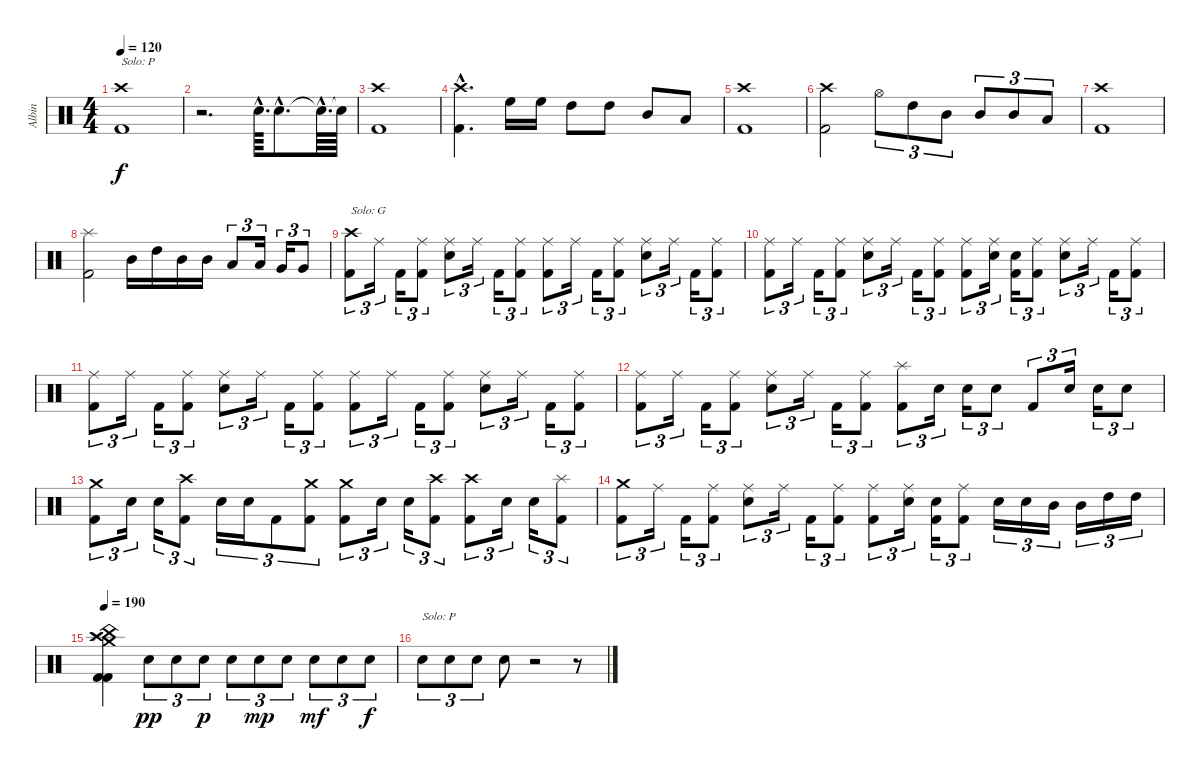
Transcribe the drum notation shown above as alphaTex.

\track ("Albin" "Albin") {instrument percussion}
\staff {score}
\articulation defaults
\ts (4 4)
\tempo 120
\clef neutral
\ks c
("Kick (hit) 2" "Crash high (hit)").1{txt "Solo: P" dy f} |
r.2{d} "Electric Snare (hit)"{hac}.64{d} "Electric Snare (hit)"{hac}.8{d} "Snare (hit)"{hac t}.64{d} "Snare (hit)"{t}.64 |
("Kick (hit) 2" "Crash high (hit)").1 |
("Kick (hit) 2"{hac} "Crash high (hit)"{hac}).4{d} "High Floor Tom (hit)".16 "High Floor Tom (hit)".16 "High Tom (hit)".8 "High Tom (hit)".8 "Mid Tom (hit)".8 "Low Tom (hit)".8 |
("Kick (hit) 2" "Crash high (hit)").1 |
("Kick (hit) 2" "Crash high (hit)").2 "Hi-Hat (open)".8{tu (3 2)} "High Tom (hit)".8{tu (3 2)} "Mid Tom (hit)".8{tu (3 2)} "Mid Tom (hit)".8{tu (3 2)} "Mid Tom (hit)".8{tu (3 2)} "Low Tom (hit)".8{tu (3 2)} |
("Kick (hit) 2" "Crash high (hit)").1 |
("Kick (hit) 2" "Splash (hit)").2 "Mid Tom (hit)".16 "High Tom (hit)".16 "Mid Tom (hit)".16 "Mid Tom (hit)".16 "Low Tom (hit)".8{tu (3 2)} "Low Tom (hit)".16{tu (3 2)} "Very Low Tom (hit)".16{tu (3 2)} "Very Low Tom (hit)".8{tu (3 2)} |
("Kick (hit) 2" "Crash high (hit)").8{tu (3 2) txt "Solo: G"} "Ride (middle)".16{tu (3 2)} "Kick (hit) 2".16{tu (3 2)} ("Kick (hit) 2" "Ride (middle)").8{tu (3 2)} ("Electric Snare (hit)" "Ride (middle)").8{tu (3 2)} "Ride (middle)".16{tu (3 2)} "Kick (hit) 2".16{tu (3 2)} ("Kick (hit) 2" "Ride (middle)").8{tu (3 2)} ("Kick (hit) 2" "Ride (middle)").8{tu (3 2)} "Ride (middle)".16{tu (3 2)} "Kick (hit) 2".16{tu (3 2)} ("Kick (hit) 2" "Ride (middle)").8{tu (3 2)} ("Electric Snare (hit)" "Ride (middle)").8{tu (3 2)} "Ride (middle)".16{tu (3 2)} "Kick (hit) 2".16{tu (3 2)} ("Kick (hit) 2" "Ride (middle)").8{tu (3 2)} |
("Kick (hit) 2" "Ride (middle)").8{tu (3 2)} "Ride (middle)".16{tu (3 2)} "Kick (hit) 2".16{tu (3 2)} ("Kick (hit) 2" "Ride (middle)").8{tu (3 2)} ("Electric Snare (hit)" "Ride (middle)").8{tu (3 2)} "Ride (middle)".16{tu (3 2)} "Kick (hit) 2".16{tu (3 2)} ("Kick (hit) 2" "Ride (middle)").8{tu (3 2)} ("Kick (hit) 2" "Ride (middle)").8{tu (3 2)} ("Electric Snare (hit)" "Ride (middle)").16{tu (3 2)} ("Kick (hit) 2" "Electric Snare (hit)").16{tu (3 2)} ("Kick (hit) 2" "Ride (middle)").8{tu (3 2)} ("Electric Snare (hit)" "Ride (middle)").8{tu (3 2)} "Ride (middle)".16{tu (3 2)} "Kick (hit) 2".16{tu (3 2)} ("Kick (hit) 2" "Ride (middle)").8{tu (3 2)} |
("Kick (hit) 2" "Ride (middle)").8{tu (3 2)} "Ride (middle)".16{tu (3 2)} "Kick (hit) 2".16{tu (3 2)} ("Kick (hit) 2" "Ride (middle)").8{tu (3 2)} ("Electric Snare (hit)" "Ride (middle)").8{tu (3 2)} "Ride (middle)".16{tu (3 2)} "Kick (hit) 2".16{tu (3 2)} ("Kick (hit) 2" "Ride (middle)").8{tu (3 2)} ("Kick (hit) 2" "Ride (middle)").8{tu (3 2)} "Ride (middle)".16{tu (3 2)} "Kick (hit) 2".16{tu (3 2)} ("Kick (hit) 2" "Ride (middle)").8{tu (3 2)} ("Electric Snare (hit)" "Ride (middle)").8{tu (3 2)} "Ride (middle)".16{tu (3 2)} "Kick (hit) 2".16{tu (3 2)} ("Kick (hit) 2" "Ride (middle)").8{tu (3 2)} |
("Kick (hit) 2" "Ride (middle)").8{tu (3 2)} "Ride (middle)".16{tu (3 2)} "Kick (hit) 2".16{tu (3 2)} ("Kick (hit) 2" "Ride (middle)").8{tu (3 2)} ("Electric Snare (hit)" "Ride (middle)").8{tu (3 2)} "Ride (middle)".16{tu (3 2)} "Kick (hit) 2".16{tu (3 2)} ("Kick (hit) 2" "Ride (middle)").8{tu (3 2)} ("Kick (hit) 2" "Splash (hit)").8{tu (3 2)} "Electric Snare (hit)".16{tu (3 2)} "Electric Snare (hit)".16{tu (3 2)} "Electric Snare (hit)".8{tu (3 2)} "Kick (hit) 2".8{tu (3 2)} "Electric Snare (hit)".16{tu (3 2)} "Electric Snare (hit)".16{tu (3 2)} "Electric Snare (hit)".8{tu (3 2)} |
("Kick (hit) 2" "Crash medium (hit)").8{tu (3 2)} "Electric Snare (hit)".16{tu (3 2)} "Electric Snare (hit)".16{tu (3 2)} ("Kick (hit) 2" "Crash high (hit)").8{tu (3 2)} "Electric Snare (hit)".16{tu (3 2)} "Electric Snare (hit)".16{tu (3 2)} "Kick (hit) 2".8{tu (3 2)} ("Kick (hit) 2" "Crash medium (hit)").8{tu (3 2)} ("Kick (hit) 2" "Crash medium (hit)").8{tu (3 2)} "Electric Snare (hit)".16{tu (3 2)} "Electric Snare (hit)".16{tu (3 2)} ("Kick (hit) 2" "Crash high (hit)").8{tu (3 2)} ("Kick (hit) 2" "Crash high (hit)").8{tu (3 2)} "Electric Snare (hit)".16{tu (3 2)} "Electric Snare (hit)".16{tu (3 2)} ("Kick (hit) 2" "Splash (hit)").8{tu (3 2)} |
("Kick (hit) 2" "Crash medium (hit)").8{tu (3 2)} "Ride (middle)".16{tu (3 2)} "Kick (hit) 2".16{tu (3 2)} ("Kick (hit) 2" "Ride (middle)").8{tu (3 2)} ("Electric Snare (hit)" "Ride (middle)").8{tu (3 2)} "Ride (middle)".16{tu (3 2)} "Kick (hit) 2".16{tu (3 2)} ("Kick (hit) 2" "Ride (middle)").8{tu (3 2)} ("Kick (hit) 2" "Ride (middle)").8{tu (3 2)} ("Electric Snare (hit)" "Ride (middle)").16{tu (3 2)} ("Kick (hit) 2" "Electric Snare (hit)").16{tu (3 2)} ("Kick (hit) 2" "Ride (middle)").8{tu (3 2)} "Electric Snare (hit)".16{tu (3 2)} "Electric Snare (hit)".16{tu (3 2)} "Mid Tom (hit)".16{tu (3 2)} "Mid Tom (hit)".16{tu (3 2)} "High Tom (hit)".16{tu (3 2)} "High Tom (hit)".16{tu (3 2)} |
\tempo 190
("Kick (hit) 2" "Crash high (hit)" "Crash medium (hit)" "Splash (hit)" "China (hit)" "Kick (hit) 2").4 "Electric Snare (hit)".8{tu (3 2) dy pp} "Electric Snare (hit)".8{tu (3 2)} "Electric Snare (hit)".8{tu (3 2) dy p} "Electric Snare (hit)".8{tu (3 2)} "Electric Snare (hit)".8{tu (3 2) dy mp} "Electric Snare (hit)".8{tu (3 2)} "Electric Snare (hit)".8{tu (3 2) dy mf} "Electric Snare (hit)".8{tu (3 2)} "Electric Snare (hit)".8{tu (3 2) dy f} |
"Electric Snare (hit)".8{tu (3 2) txt "Solo: P"} "Electric Snare (hit)".8{tu (3 2)} "Electric Snare (hit)".8{tu (3 2)} "Electric Snare (hit)".8 r.2 r.8
